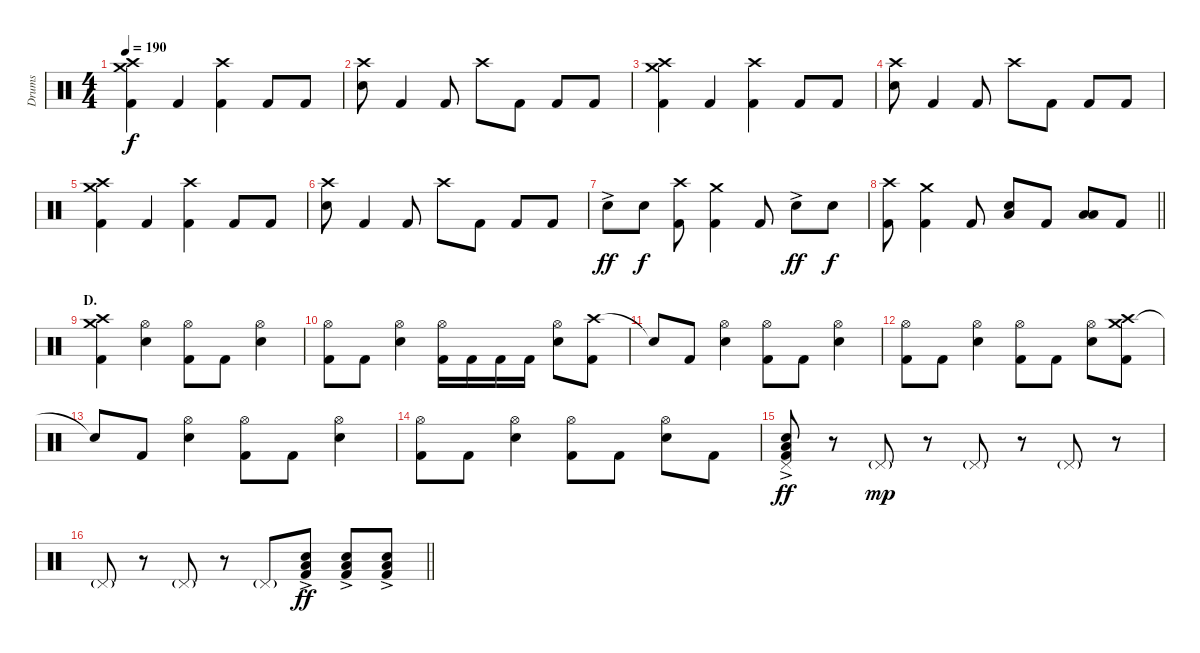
\track ("Drums" "Drums") {instrument percussion}
\staff {score}
\articulation defaults
\ts (4 4)
\tempo 190
\clef neutral
\ks c
("Crash medium (hit)" "Crash high (hit)" "Kick (hit) 2").4{dy f} "Kick (hit) 2".4 ("Crash high (hit)" "Kick (hit) 2").4 "Kick (hit) 2".8 "Kick (hit) 2".8 |
("Crash high (hit)" "Electric Snare (hit)").8 "Kick (hit) 2".4 "Kick (hit) 2".8 "Crash high (hit)".8 "Kick (hit) 2".8 "Kick (hit) 2".8 "Kick (hit) 2".8 |
("Crash medium (hit)" "Crash high (hit)" "Kick (hit) 2").4 "Kick (hit) 2".4 ("Crash high (hit)" "Kick (hit) 2").4 "Kick (hit) 2".8 "Kick (hit) 2".8 |
("Crash high (hit)" "Electric Snare (hit)").8 "Kick (hit) 2".4 "Kick (hit) 2".8 "Crash high (hit)".8 "Kick (hit) 2".8 "Kick (hit) 2".8 "Kick (hit) 2".8 |
("Crash medium (hit)" "Crash high (hit)" "Kick (hit) 2").4 "Kick (hit) 2".4 ("Crash high (hit)" "Kick (hit) 2").4 "Kick (hit) 2".8 "Kick (hit) 2".8 |
("Crash high (hit)" "Electric Snare (hit)").8 "Kick (hit) 2".4 "Kick (hit) 2".8 "Crash high (hit)".8 "Kick (hit) 2".8 "Kick (hit) 2".8 "Kick (hit) 2".8 |
"Electric Snare (hit)"{ac}.8{dy ff} "Electric Snare (hit)".8{dy f} ("Crash high (hit)" "Kick (hit) 2").8 ("Crash medium (hit)" "Kick (hit) 2").4 "Kick (hit) 2".8 "Electric Snare (hit)"{ac}.8{dy ff} "Electric Snare (hit)".8{dy f} |
\barLineRight lightlight
("Crash high (hit)" "Kick (hit) 2").8 ("Crash medium (hit)" "Kick (hit) 2").4 "Kick (hit) 2".8 ("Electric Snare (hit)" "Low Floor Tom (hit)").8{bu 120} "Kick (hit) 2".8 ("Low Tom (hit)" "Low Floor Tom (hit)").8{bu 120} "Kick (hit) 2".8 |
\section ("" "D.")
("Crash medium (hit)" "Crash high (hit)" "Kick (hit) 2").4 ("Hi-Hat (open)" "Electric Snare (hit)").4 ("Hi-Hat (open)" "Kick (hit) 2").8 "Kick (hit) 2".8 ("Hi-Hat (open)" "Electric Snare (hit)").4 |
("Hi-Hat (open)" "Kick (hit) 2").8 "Kick (hit) 2".8 ("Hi-Hat (open)" "Electric Snare (hit)").4 ("Hi-Hat (open)" "Kick (hit) 2").16 "Kick (hit) 2".16 "Kick (hit) 2".16 "Kick (hit) 2".16 ("Hi-Hat (open)" "Electric Snare (hit)").8 ("Crash high (hit)" "Kick (hit) 2").8 |
"Snare (hit)"{t}.8 "Kick (hit) 2".8 ("Hi-Hat (open)" "Electric Snare (hit)").4 ("Hi-Hat (open)" "Kick (hit) 2").8 "Kick (hit) 2".8 ("Hi-Hat (open)" "Electric Snare (hit)").4 |
("Hi-Hat (open)" "Kick (hit) 2").8 "Kick (hit) 2".8 ("Hi-Hat (open)" "Electric Snare (hit)").4 ("Hi-Hat (open)" "Kick (hit) 2").8 "Kick (hit) 2".8 ("Hi-Hat (open)" "Electric Snare (hit)").8 ("Crash medium (hit)" "Crash high (hit)" "Kick (hit) 2").8 |
"Snare (hit)"{t}.8 "Kick (hit) 2".8 ("Hi-Hat (open)" "Electric Snare (hit)").4 ("Hi-Hat (open)" "Kick (hit) 2").8 "Kick (hit) 2".8 ("Hi-Hat (open)" "Electric Snare (hit)").4 |
("Hi-Hat (open)" "Kick (hit) 2").8 "Kick (hit) 2".8 ("Hi-Hat (open)" "Electric Snare (hit)").4 ("Hi-Hat (open)" "Kick (hit) 2").8 "Kick (hit) 2".8 ("Hi-Hat (open)" "Electric Snare (hit)").8 "Kick (hit) 2".8 |
("Pedal Hi-Hat (hit)" "Electric Snare (hit)" "Low Floor Tom (hit)"{ac} "Kick (hit) 2").8{dy ff} r.8 "Pedal Hi-Hat (hit)"{g}.8{dy mp} r.8 "Pedal Hi-Hat (hit)"{g}.8 r.8 "Pedal Hi-Hat (hit)"{g}.8 r.8 |
\barLineRight lightlight "Pedal Hi-Hat (hit)"{g}.8
r.8 "Pedal Hi-Hat (hit)"{g}.8 r.8 "Pedal Hi-Hat (hit)"{g}.8 ("Electric Snare (hit)" "Low Floor Tom (hit)"{ac} "Kick (hit) 2").8{dy ff} ("Electric Snare (hit)" "Low Floor Tom (hit)"{ac} "Kick (hit) 2").8 ("Electric Snare (hit)" "Low Floor Tom (hit)"{ac} "Kick (hit) 2").8
